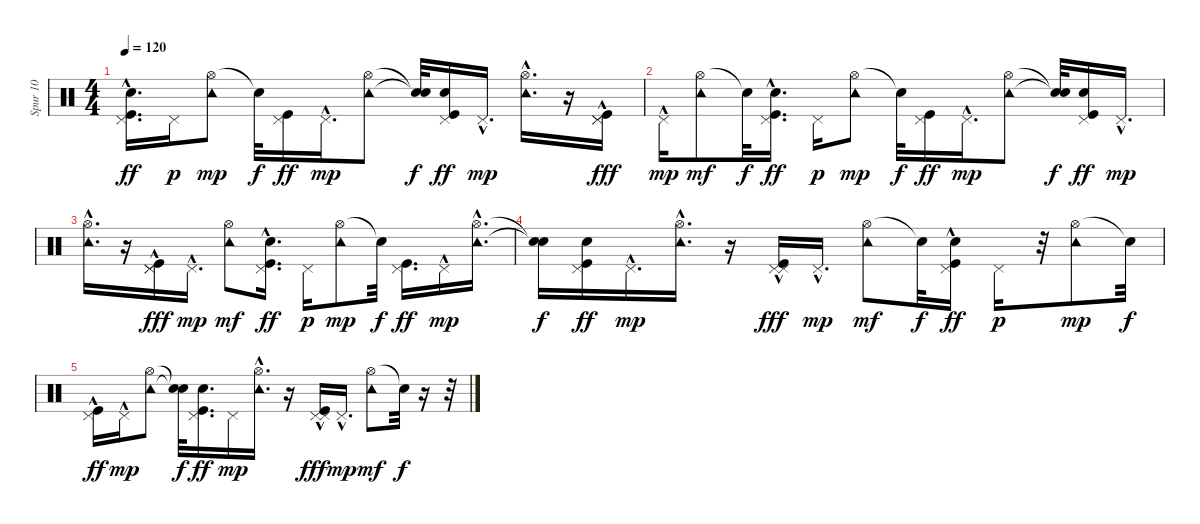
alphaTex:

\track ("Spur 10" "Spur 10") {instrument percussion}
\staff {score}
\articulation defaults
\ts (4 4)
\tempo 120
\clef neutral
\ks c
("Pedal Hi-Hat (hit)" "Kick (hit)" "Snare (hit) 2"{hac}).16{d dy ff} "Pedal Hi-Hat (hit)".16{dy p} ("Hi-Hat (open)" "Tambourine (hit)").8{dy mp} "Snare (hit)"{t}.32{dy f} ("Pedal Hi-Hat (hit)" "Kick (hit)").16{dy ff} "Pedal Hi-Hat (hit)"{hac}.16{d dy mp} ("Hi-Hat (open)" "Tambourine (hit)").8 ("Snare (hit)"{t} "Snare (hit)"{t}).32{dy f} ("Pedal Hi-Hat (hit)" "Kick (hit)" "Snare (hit) 2").16{dy ff} "Pedal Hi-Hat (hit)"{hac}.16{d dy mp} ("Hi-Hat (open)" "Tambourine (hit)"{hac}).16{d} r.16 ("Pedal Hi-Hat (hit)" "Pedal Hi-Hat (hit)" "Kick (hit)"{hac}).16{dy fff} |
"Pedal Hi-Hat (hit)"{hac}.16{dy mp} ("Hi-Hat (open)" "Tambourine (hit)").8{dy mf} "Snare (hit)"{t}.32{dy f} ("Pedal Hi-Hat (hit)" "Kick (hit)"{hac} "Snare (hit) 2"{hac}).16{d dy ff} "Pedal Hi-Hat (hit)".16{dy p} ("Hi-Hat (open)" "Tambourine (hit)").8{dy mp} "Snare (hit)"{t}.32{dy f} ("Pedal Hi-Hat (hit)" "Kick (hit)").16{dy ff} "Pedal Hi-Hat (hit)"{hac}.16{d dy mp} ("Hi-Hat (open)" "Tambourine (hit)").8 ("Snare (hit)"{t} "Snare (hit)"{t}).32{dy f} ("Pedal Hi-Hat (hit)" "Kick (hit)" "Snare (hit) 2").16{dy ff} "Pedal Hi-Hat (hit)"{hac}.16{d dy mp} |
("Hi-Hat (open)" "Tambourine (hit)"{hac}).16{d} r.16 ("Pedal Hi-Hat (hit)" "Pedal Hi-Hat (hit)" "Kick (hit)"{hac}).16{dy fff} "Pedal Hi-Hat (hit)"{hac}.16{d dy mp} ("Hi-Hat (open)" "Tambourine (hit)").8{dy mf} ("Pedal Hi-Hat (hit)" "Kick (hit)" "Snare (hit) 2"{hac}).16{d dy ff} "Pedal Hi-Hat (hit)".16{dy p} ("Hi-Hat (open)" "Tambourine (hit)").8{dy mp} "Snare (hit)"{t}.32{dy f} ("Pedal Hi-Hat (hit)" "Kick (hit)").16{d dy ff} "Pedal Hi-Hat (hit)"{hac}.16{dy mp} ("Hi-Hat (open)"{hac} "Tambourine (hit)"{hac}).16{d} |
("Snare (hit)"{t} "Snare (hit)"{t}).16{dy f} ("Pedal Hi-Hat (hit)" "Kick (hit)" "Snare (hit) 2").16{dy ff} "Pedal Hi-Hat (hit)"{hac}.16{d dy mp} ("Hi-Hat (open)" "Tambourine (hit)"{hac}).16{d} r.16 ("Pedal Hi-Hat (hit)" "Pedal Hi-Hat (hit)" "Kick (hit)"{hac}).16{dy fff} "Pedal Hi-Hat (hit)"{hac}.16{d dy mp} ("Hi-Hat (open)" "Tambourine (hit)").8{dy mf} "Snare (hit)"{t}.32{dy f} ("Pedal Hi-Hat (hit)" "Kick (hit)" "Snare (hit) 2"{hac}).16{dy ff} "Pedal Hi-Hat (hit)".16{dy p} r.32 ("Hi-Hat (open)" "Tambourine (hit)").8{dy mp} "Snare (hit)"{t}.32{dy f} |
("Pedal Hi-Hat (hit)" "Kick (hit)"{hac}).16{dy ff} "Pedal Hi-Hat (hit)"{hac}.16{dy mp} ("Hi-Hat (open)" "Tambourine (hit)").8 ("Snare (hit)"{t} "Snare (hit)"{t}).32{dy f} ("Pedal Hi-Hat (hit)" "Kick (hit)" "Snare (hit) 2").16{d dy ff} "Pedal Hi-Hat (hit)".16{dy mp} ("Hi-Hat (open)" "Tambourine (hit)"{hac}).16{d} r.16 ("Pedal Hi-Hat (hit)" "Pedal Hi-Hat (hit)" "Kick (hit)"{hac}).16{dy fff} "Pedal Hi-Hat (hit)"{hac}.16{d dy mp} ("Hi-Hat (open)" "Tambourine (hit)").8{dy mf} "Snare (hit)"{t}.32{dy f} r.16 r.32
